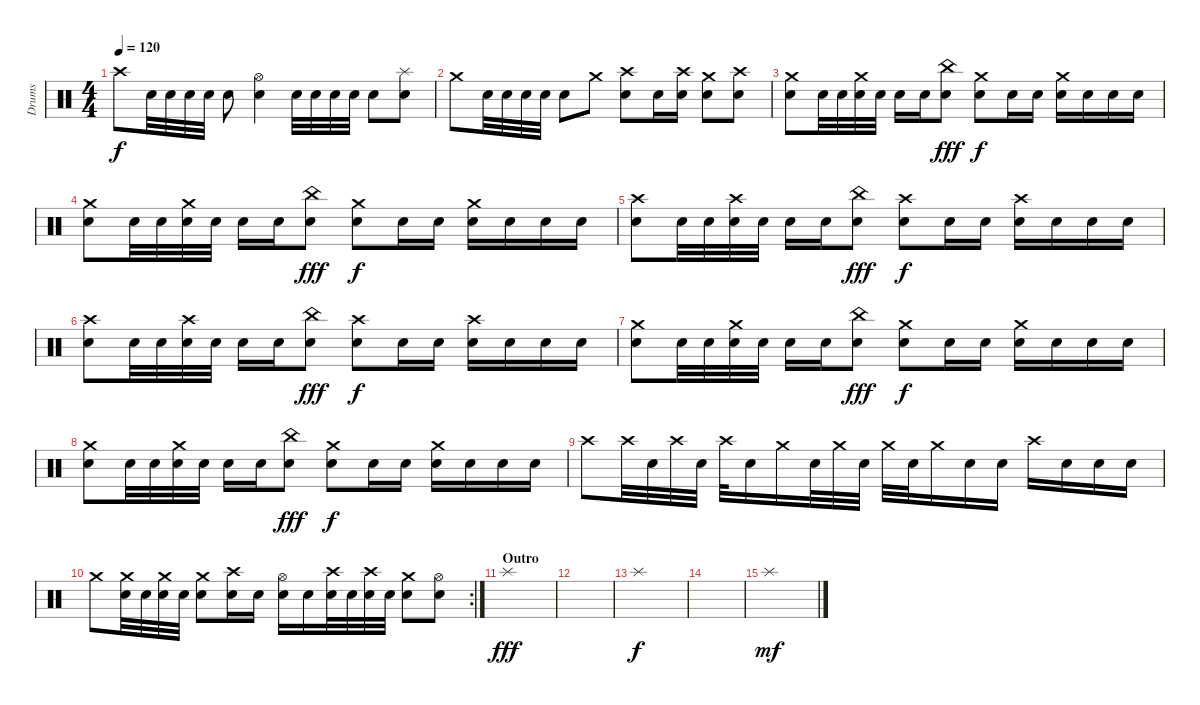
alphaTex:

\track ("Drums" "Drums") {instrument percussion}
\staff {score}
\articulation defaults
\ts (4 4)
\tempo 120
\clef neutral
\ks c "Crash high (hit)".8{dy f} "Electric Snare (hit)".32 "Electric Snare (hit)".32 "Electric Snare (hit)".32 "Electric Snare (hit)".32 "Electric Snare (hit)".8
("Hi-Hat (open)" "Electric Snare (hit)").4 "Electric Snare (hit)".32 "Electric Snare (hit)".32 "Electric Snare (hit)".32 "Electric Snare (hit)".32 "Electric Snare (hit)".8 ("Splash (hit)" "Electric Snare (hit)").8 |
"Crash medium (hit)".8 "Electric Snare (hit)".32 "Electric Snare (hit)".32 "Electric Snare (hit)".32 "Electric Snare (hit)".32 "Electric Snare (hit)".8 "Crash medium (hit)".8 ("Crash high (hit)" "Electric Snare (hit)").8 "Electric Snare (hit)".16 ("Crash high (hit)" "Electric Snare (hit)").16 ("Crash medium (hit)" "Electric Snare (hit)").8 ("Crash high (hit)" "Electric Snare (hit)").8 |
("Crash medium (hit)" "Snare (hit) 2").8 "Electric Snare (hit)".32 "Electric Snare (hit)".32 ("Crash medium (hit)" "Electric Snare (hit)").32 "Electric Snare (hit)".32 "Snare (hit) 2".16 "Electric Snare (hit)".16 ("China (hit)" "Snare (hit) 2").8{dy fff} ("Crash medium (hit)" "Electric Snare (hit)").8{dy f} "Snare (hit) 2".16 "Electric Snare (hit)".16 ("Crash medium (hit)" "Snare (hit) 2").16 "Electric Snare (hit)".16 "Snare (hit) 2".16 "Electric Snare (hit)".16 |
("Crash medium (hit)" "Snare (hit) 2").8 "Electric Snare (hit)".32 "Electric Snare (hit)".32 ("Crash medium (hit)" "Electric Snare (hit)").32 "Electric Snare (hit)".32 "Snare (hit) 2".16 "Electric Snare (hit)".16 ("China (hit)" "Snare (hit) 2").8{dy fff} ("Crash medium (hit)" "Electric Snare (hit)").8{dy f} "Snare (hit) 2".16 "Electric Snare (hit)".16 ("Crash medium (hit)" "Snare (hit) 2").16 "Electric Snare (hit)".16 "Snare (hit) 2".16 "Electric Snare (hit)".16 |
("Crash high (hit)" "Snare (hit) 2").8 "Electric Snare (hit)".32 "Electric Snare (hit)".32 ("Crash high (hit)" "Electric Snare (hit)").32 "Electric Snare (hit)".32 "Snare (hit) 2".16 "Electric Snare (hit)".16 ("China (hit)" "Snare (hit) 2").8{dy fff} ("Crash high (hit)" "Electric Snare (hit)").8{dy f} "Snare (hit) 2".16 "Electric Snare (hit)".16 ("Crash high (hit)" "Snare (hit) 2").16 "Electric Snare (hit)".16 "Snare (hit) 2".16 "Electric Snare (hit)".16 |
("Crash high (hit)" "Snare (hit) 2").8 "Electric Snare (hit)".32 "Electric Snare (hit)".32 ("Crash high (hit)" "Electric Snare (hit)").32 "Electric Snare (hit)".32 "Snare (hit) 2".16 "Electric Snare (hit)".16 ("China (hit)" "Snare (hit) 2").8{dy fff} ("Crash high (hit)" "Electric Snare (hit)").8{dy f} "Snare (hit) 2".16 "Electric Snare (hit)".16 ("Crash high (hit)" "Snare (hit) 2").16 "Electric Snare (hit)".16 "Snare (hit) 2".16 "Electric Snare (hit)".16 |
("Crash medium (hit)" "Snare (hit) 2").8 "Electric Snare (hit)".32 "Electric Snare (hit)".32 ("Crash medium (hit)" "Electric Snare (hit)").32 "Electric Snare (hit)".32 "Snare (hit) 2".16 "Electric Snare (hit)".16 ("China (hit)" "Snare (hit) 2").8{dy fff} ("Crash medium (hit)" "Electric Snare (hit)").8{dy f} "Snare (hit) 2".16 "Electric Snare (hit)".16 ("Crash medium (hit)" "Snare (hit) 2").16 "Electric Snare (hit)".16 "Snare (hit) 2".16 "Electric Snare (hit)".16 |
("Crash medium (hit)" "Snare (hit) 2").8 "Electric Snare (hit)".32 "Electric Snare (hit)".32 ("Crash medium (hit)" "Electric Snare (hit)").32 "Electric Snare (hit)".32 "Snare (hit) 2".16 "Electric Snare (hit)".16 ("China (hit)" "Snare (hit) 2").8{dy fff} ("Crash medium (hit)" "Electric Snare (hit)").8{dy f} "Snare (hit) 2".16 "Electric Snare (hit)".16 ("Crash medium (hit)" "Snare (hit) 2").16 "Electric Snare (hit)".16 "Snare (hit) 2".16 "Electric Snare (hit)".16 |
"Crash high (hit)".8 "Crash high (hit)".32 "Electric Snare (hit)".32 "Crash high (hit)".32 "Electric Snare (hit)".32 "Crash high (hit)".32 "Electric Snare (hit)".16 "Crash medium (hit)".16 "Electric Snare (hit)".32 "Crash medium (hit)".32 "Electric Snare (hit)".32 "Crash medium (hit)".32 "Electric Snare (hit)".32 "Crash medium (hit)".16 "Electric Snare (hit)".16 "Electric Snare (hit)".16 "Crash high (hit)".16 "Electric Snare (hit)".16 "Electric Snare (hit)".16 "Electric Snare (hit)".16 |
\rc 2 "Crash medium (hit)".8
("Crash medium (hit)" "Electric Snare (hit)").32 "Electric Snare (hit)".32 ("Crash medium (hit)" "Electric Snare (hit)").32 "Electric Snare (hit)".32 ("Crash medium (hit)" "Electric Snare (hit)").8 ("Crash high (hit)" "Electric Snare (hit)").16 "Snare (hit) 2".16 ("Hi-Hat (open)" "Electric Snare (hit)").16 "Snare (hit) 2".16 ("Crash high (hit)" "Electric Snare (hit)").32 "Electric Snare (hit)".32 ("Crash high (hit)" "Electric Snare (hit)").32 "Electric Snare (hit)".32 ("Crash medium (hit)" "Electric Snare (hit)").8 ("Hi-Hat (open)" "Electric Snare (hit)").8 |
\section ("" "Outro")
"Splash (hit)".1{dy fff} |
|
"Splash (hit)".1{dy f} |
|
"Splash (hit)".1{dy mf}
